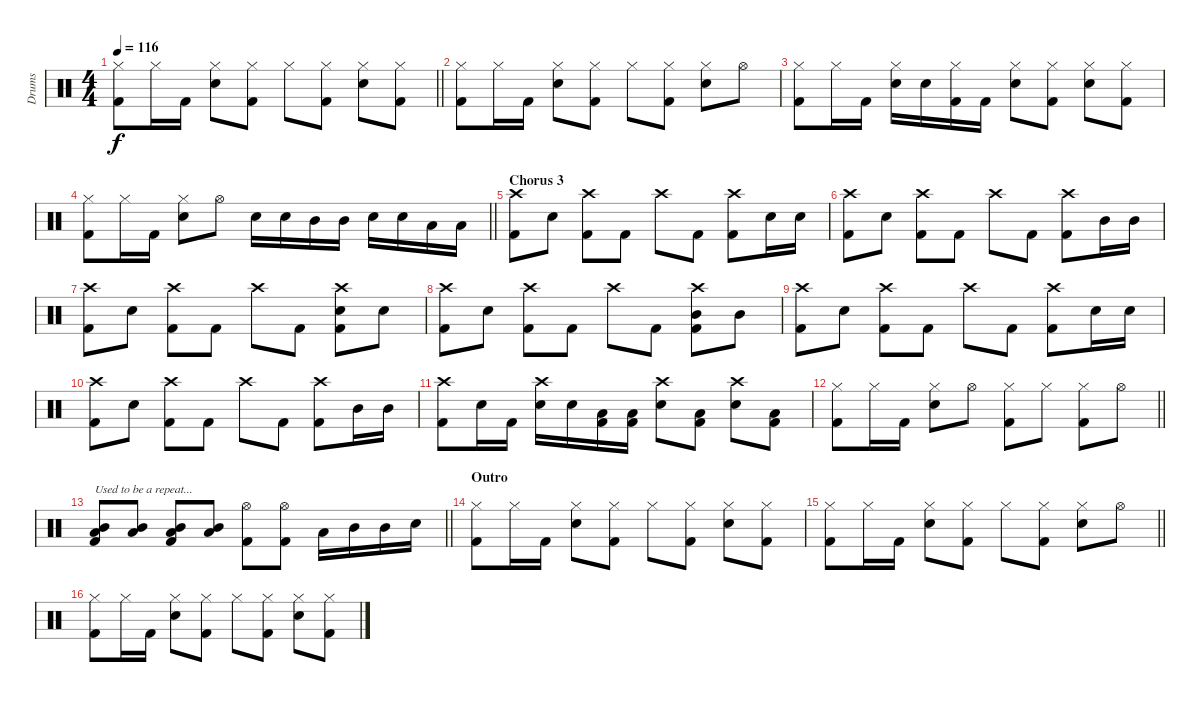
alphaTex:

\track ("Drums" "Drums") {instrument percussion}
\staff {score}
\articulation defaults
\ts (4 4)
\tempo 116
\clef neutral
\barLineRight lightlight
\ks c
("Hi-Hat (closed)" "Kick (hit) 2").8{dy f} "Hi-Hat (closed)".16 "Kick (hit) 2".16 ("Hi-Hat (closed)" "Snare (hit) 2").8 ("Hi-Hat (closed)" "Kick (hit) 2").8 "Hi-Hat (closed)".8 ("Hi-Hat (closed)" "Kick (hit) 2").8 ("Hi-Hat (closed)" "Snare (hit) 2").8 ("Hi-Hat (closed)" "Kick (hit) 2").8 |
("Hi-Hat (closed)" "Kick (hit) 2").8 "Hi-Hat (closed)".16 "Kick (hit) 2".16 ("Hi-Hat (closed)" "Snare (hit) 2").8 ("Hi-Hat (closed)" "Kick (hit) 2").8 "Hi-Hat (closed)".8 ("Hi-Hat (closed)" "Kick (hit) 2").8 ("Hi-Hat (closed)" "Snare (hit) 2").8 "Hi-Hat (open)".8 |
("Hi-Hat (closed)" "Kick (hit) 2").8 "Hi-Hat (closed)".16 "Kick (hit) 2".16 ("Hi-Hat (closed)" "Snare (hit) 2").16 "Snare (hit) 2".16 ("Hi-Hat (closed)" "Kick (hit) 2").16 "Kick (hit) 2".16 ("Hi-Hat (closed)" "Snare (hit) 2").8 ("Hi-Hat (closed)" "Kick (hit) 2").8 ("Hi-Hat (closed)" "Snare (hit) 2").8 ("Hi-Hat (closed)" "Kick (hit) 2").8 |
\barLineRight lightlight
("Hi-Hat (closed)" "Kick (hit) 2").8 "Hi-Hat (closed)".16 "Kick (hit) 2".16 ("Hi-Hat (closed)" "Snare (hit) 2").8 "Hi-Hat (open)".8 "Snare (hit) 2".16 "Snare (hit) 2".16 "Mid Tom (hit)".16 "Mid Tom (hit)".16 "Snare (hit) 2".16 "Snare (hit) 2".16 "Low Floor Tom (hit)".16 "Low Floor Tom (hit)".16 |
\section ("" "Chorus 3")
("Crash high (hit)" "Kick (hit) 2").8 "Snare (hit) 2".8 ("Crash high (hit)" "Kick (hit) 2").8 "Kick (hit) 2".8 "Crash high (hit)".8 "Kick (hit) 2".8 ("Crash high (hit)" "Kick (hit) 2").8 "Snare (hit) 2".16 "Snare (hit) 2".16 |
("Crash high (hit)" "Kick (hit) 2").8 "Snare (hit) 2".8 ("Crash high (hit)" "Kick (hit) 2").8 "Kick (hit) 2".8 "Crash high (hit)".8 "Kick (hit) 2".8 ("Crash high (hit)" "Kick (hit) 2").8 "Mid Tom (hit)".16 "Mid Tom (hit)".16 |
("Crash high (hit)" "Kick (hit) 2").8 "Snare (hit) 2".8 ("Crash high (hit)" "Kick (hit) 2").8 "Kick (hit) 2".8 "Crash high (hit)".8 "Kick (hit) 2".8 ("Crash high (hit)" "Snare (hit) 2" "Kick (hit) 2").8 "Snare (hit) 2".8 |
("Crash high (hit)" "Kick (hit) 2").8 "Snare (hit) 2".8 ("Crash high (hit)" "Kick (hit) 2").8 "Kick (hit) 2".8 "Crash high (hit)".8 "Kick (hit) 2".8 ("Crash high (hit)" "Mid Tom (hit)" "Kick (hit) 2").8 "Mid Tom (hit)".8 |
("Crash high (hit)" "Kick (hit) 2").8 "Snare (hit) 2".8 ("Crash high (hit)" "Kick (hit) 2").8 "Kick (hit) 2".8 "Crash high (hit)".8 "Kick (hit) 2".8 ("Crash high (hit)" "Kick (hit) 2").8 "Snare (hit) 2".16 "Snare (hit) 2".16 |
("Crash high (hit)" "Kick (hit) 2").8 "Snare (hit) 2".8 ("Crash high (hit)" "Kick (hit) 2").8 "Kick (hit) 2".8 "Crash high (hit)".8 "Kick (hit) 2".8 ("Crash high (hit)" "Kick (hit) 2").8 "Mid Tom (hit)".16 "Mid Tom (hit)".16 |
("Crash high (hit)" "Kick (hit) 2").8 "Snare (hit) 2".16 "Kick (hit) 2".16 ("Crash high (hit)" "Snare (hit) 2").16 "Snare (hit) 2".16 ("Low Floor Tom (hit)" "Kick (hit) 2").16 ("Low Floor Tom (hit)" "Kick (hit) 2").16 ("Crash high (hit)" "Snare (hit) 2").8 ("Low Floor Tom (hit)" "Kick (hit) 2").8 ("Crash high (hit)" "Snare (hit) 2").8 ("Low Floor Tom (hit)" "Kick (hit) 2").8 |
\barLineRight lightlight
("Hi-Hat (closed)" "Kick (hit) 2").8 "Hi-Hat (closed)".16 "Kick (hit) 2".16 ("Hi-Hat (closed)" "Snare (hit) 2").8 "Hi-Hat (open)".8 ("Hi-Hat (closed)" "Kick (hit) 2").8 "Hi-Hat (closed)".8 ("Hi-Hat (closed)" "Kick (hit) 2").8 "Hi-Hat (open)".8 |
\barLineRight lightlight
("Mid Tom (hit)" "Low Floor Tom (hit)" "Kick (hit) 2").8{txt "Used to be a repeat..."} ("Mid Tom (hit)" "Low Floor Tom (hit)").8 ("Mid Tom (hit)" "Low Floor Tom (hit)" "Kick (hit) 2").8 ("Mid Tom (hit)" "Low Floor Tom (hit)").8 ("Hi-Hat (open)" "Kick (hit) 2").8 ("Hi-Hat (open)" "Kick (hit) 2").8 "Low Floor Tom (hit)".16 "Mid Tom (hit)".16 "Mid Tom (hit)".16 "Snare (hit) 2".16 |
\section ("" "Outro")
("Hi-Hat (closed)" "Kick (hit) 2").8 "Hi-Hat (closed)".16 "Kick (hit) 2".16 ("Hi-Hat (closed)" "Snare (hit) 2").8 ("Hi-Hat (closed)" "Kick (hit) 2").8 "Hi-Hat (closed)".8 ("Hi-Hat (closed)" "Kick (hit) 2").8 ("Hi-Hat (closed)" "Snare (hit) 2").8 ("Hi-Hat (closed)" "Kick (hit) 2").8 |
\barLineRight lightlight
("Hi-Hat (closed)" "Kick (hit) 2").8 "Hi-Hat (closed)".16 "Kick (hit) 2".16 ("Hi-Hat (closed)" "Snare (hit) 2").8 ("Hi-Hat (closed)" "Kick (hit) 2").8 "Hi-Hat (closed)".8 ("Hi-Hat (closed)" "Kick (hit) 2").8 ("Hi-Hat (closed)" "Snare (hit) 2").8 "Hi-Hat (open)".8 |
("Hi-Hat (closed)" "Kick (hit) 2").8 "Hi-Hat (closed)".16 "Kick (hit) 2".16 ("Hi-Hat (closed)" "Snare (hit) 2").8 ("Hi-Hat (closed)" "Kick (hit) 2").8 "Hi-Hat (closed)".8 ("Hi-Hat (closed)" "Kick (hit) 2").8 ("Hi-Hat (closed)" "Snare (hit) 2").8 ("Hi-Hat (closed)" "Kick (hit) 2").8
